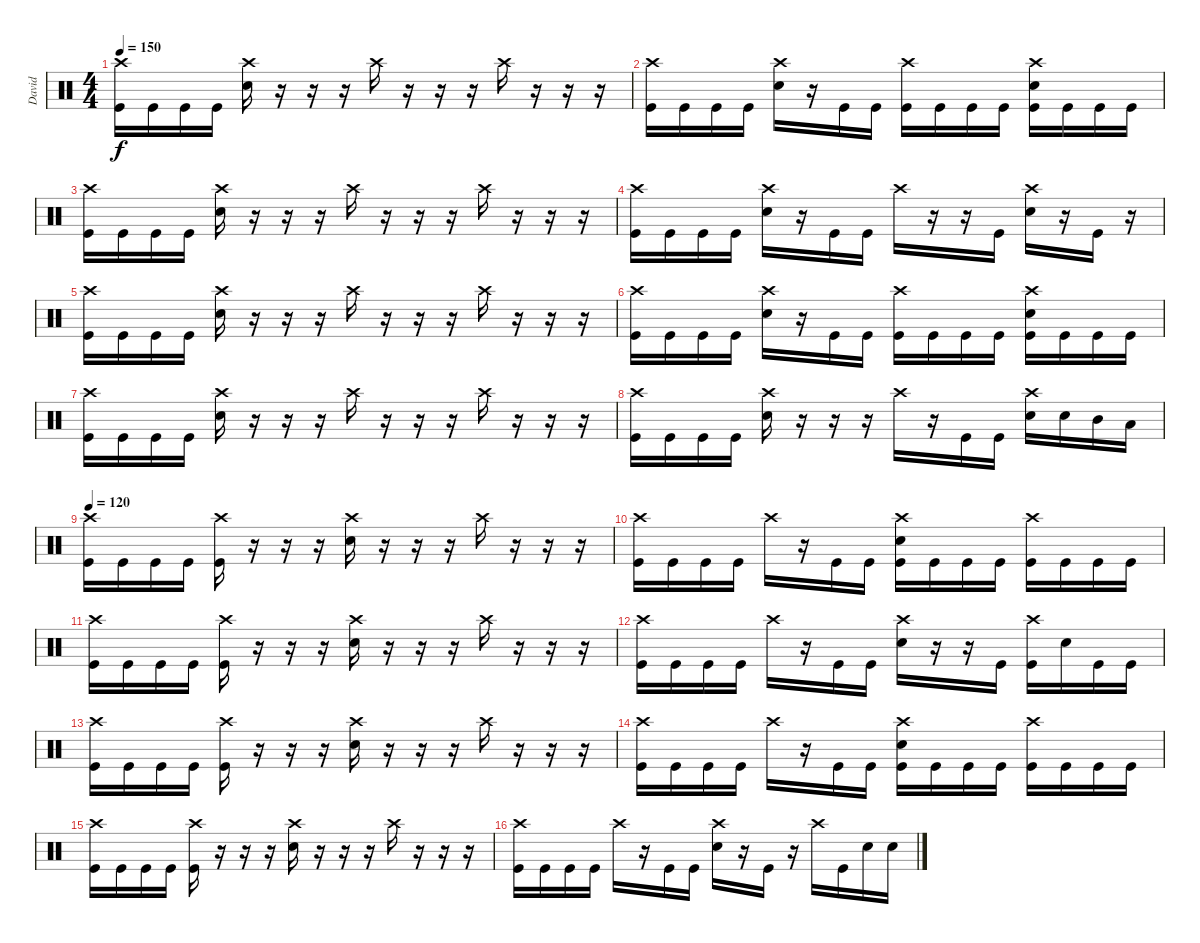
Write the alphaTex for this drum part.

\track ("David" "David") {instrument percussion}
\staff {score}
\articulation defaults
\ts (4 4)
\tempo 150
\clef neutral
\ks c
("Crash high (hit)" "Kick (hit)").16{dy f} "Kick (hit)".16 "Kick (hit)".16 "Kick (hit)".16 ("Crash high (hit)" "Electric Snare (hit)").16 r.16 r.16 r.16 "Crash high (hit)".16 r.16 r.16 r.16 "Crash high (hit)".16 r.16 r.16 r.16 |
("Crash high (hit)" "Kick (hit)").16 "Kick (hit)".16 "Kick (hit)".16 "Kick (hit)".16 ("Crash high (hit)" "Electric Snare (hit)").16 r.16 "Kick (hit)".16 "Kick (hit)".16 ("Crash high (hit)" "Kick (hit)").16 "Kick (hit)".16 "Kick (hit)".16 "Kick (hit)".16 ("Crash high (hit)" "Electric Snare (hit)" "Kick (hit)").16 "Kick (hit)".16 "Kick (hit)".16 "Kick (hit)".16 |
("Crash high (hit)" "Kick (hit)").16 "Kick (hit)".16 "Kick (hit)".16 "Kick (hit)".16 ("Crash high (hit)" "Electric Snare (hit)").16 r.16 r.16 r.16 "Crash high (hit)".16 r.16 r.16 r.16 "Crash high (hit)".16 r.16 r.16 r.16 |
("Crash high (hit)" "Kick (hit)").16 "Kick (hit)".16 "Kick (hit)".16 "Kick (hit)".16 ("Crash high (hit)" "Electric Snare (hit)").16 r.16 "Kick (hit)".16 "Kick (hit)".16 "Crash high (hit)".16 r.16 r.16 "Kick (hit)".16 ("Crash high (hit)" "Electric Snare (hit)").16 r.16 "Kick (hit)".16 r.16 |
("Crash high (hit)" "Kick (hit)").16 "Kick (hit)".16 "Kick (hit)".16 "Kick (hit)".16 ("Crash high (hit)" "Electric Snare (hit)").16 r.16 r.16 r.16 "Crash high (hit)".16 r.16 r.16 r.16 "Crash high (hit)".16 r.16 r.16 r.16 |
("Crash high (hit)" "Kick (hit)").16 "Kick (hit)".16 "Kick (hit)".16 "Kick (hit)".16 ("Crash high (hit)" "Electric Snare (hit)").16 r.16 "Kick (hit)".16 "Kick (hit)".16 ("Crash high (hit)" "Kick (hit)").16 "Kick (hit)".16 "Kick (hit)".16 "Kick (hit)".16 ("Crash high (hit)" "Electric Snare (hit)" "Kick (hit)").16 "Kick (hit)".16 "Kick (hit)".16 "Kick (hit)".16 |
("Crash high (hit)" "Kick (hit)").16 "Kick (hit)".16 "Kick (hit)".16 "Kick (hit)".16 ("Crash high (hit)" "Electric Snare (hit)").16 r.16 r.16 r.16 "Crash high (hit)".16 r.16 r.16 r.16 "Crash high (hit)".16 r.16 r.16 r.16 |
("Crash high (hit)" "Kick (hit)").16 "Kick (hit)".16 "Kick (hit)".16 "Kick (hit)".16 ("Crash high (hit)" "Electric Snare (hit)").16 r.16 r.16 r.16 "Crash high (hit)".16 r.16 "Kick (hit)".16 "Kick (hit)".16 ("Crash high (hit)" "Electric Snare (hit)").16 "Electric Snare (hit)".16 "Mid Tom (hit)".16 "Low Tom (hit)".16 |
\tempo 120
("Crash high (hit)" "Kick (hit)").16 "Kick (hit)".16 "Kick (hit)".16 "Kick (hit)".16 ("Crash high (hit)" "Kick (hit)").16 r.16 r.16 r.16 ("Crash high (hit)" "Electric Snare (hit)").16 r.16 r.16 r.16 "Crash high (hit)".16 r.16 r.16 r.16 |
("Crash high (hit)" "Kick (hit)").16 "Kick (hit)".16 "Kick (hit)".16 "Kick (hit)".16 "Crash high (hit)".16 r.16 "Kick (hit)".16 "Kick (hit)".16 ("Crash high (hit)" "Electric Snare (hit)" "Kick (hit)").16 "Kick (hit)".16 "Kick (hit)".16 "Kick (hit)".16 ("Crash high (hit)" "Kick (hit)").16 "Kick (hit)".16 "Kick (hit)".16 "Kick (hit)".16 |
("Crash high (hit)" "Kick (hit)").16 "Kick (hit)".16 "Kick (hit)".16 "Kick (hit)".16 ("Crash high (hit)" "Kick (hit)").16 r.16 r.16 r.16 ("Crash high (hit)" "Electric Snare (hit)").16 r.16 r.16 r.16 "Crash high (hit)".16 r.16 r.16 r.16 |
("Crash high (hit)" "Kick (hit)").16 "Kick (hit)".16 "Kick (hit)".16 "Kick (hit)".16 "Crash high (hit)".16 r.16 "Kick (hit)".16 "Kick (hit)".16 ("Crash high (hit)" "Electric Snare (hit)").16 r.16 r.16 "Kick (hit)".16 ("Crash high (hit)" "Kick (hit)").16 "Electric Snare (hit)".16 "Kick (hit)".16 "Kick (hit)".16 |
("Crash high (hit)" "Kick (hit)").16 "Kick (hit)".16 "Kick (hit)".16 "Kick (hit)".16 ("Crash high (hit)" "Kick (hit)").16 r.16 r.16 r.16 ("Crash high (hit)" "Electric Snare (hit)").16 r.16 r.16 r.16 "Crash high (hit)".16 r.16 r.16 r.16 |
("Crash high (hit)" "Kick (hit)").16 "Kick (hit)".16 "Kick (hit)".16 "Kick (hit)".16 "Crash high (hit)".16 r.16 "Kick (hit)".16 "Kick (hit)".16 ("Crash high (hit)" "Electric Snare (hit)" "Kick (hit)").16 "Kick (hit)".16 "Kick (hit)".16 "Kick (hit)".16 ("Crash high (hit)" "Kick (hit)").16 "Kick (hit)".16 "Kick (hit)".16 "Kick (hit)".16 |
("Crash high (hit)" "Kick (hit)").16 "Kick (hit)".16 "Kick (hit)".16 "Kick (hit)".16 ("Crash high (hit)" "Kick (hit)").16 r.16 r.16 r.16 ("Crash high (hit)" "Electric Snare (hit)").16 r.16 r.16 r.16 "Crash high (hit)".16 r.16 r.16 r.16 |
("Crash high (hit)" "Kick (hit)").16 "Kick (hit)".16 "Kick (hit)".16 "Kick (hit)".16 "Crash high (hit)".16 r.16 "Kick (hit)".16 "Kick (hit)".16 ("Crash high (hit)" "Electric Snare (hit)").16 r.16 "Kick (hit)".16 r.16 "Crash high (hit)".16 "Kick (hit)".16 "Electric Snare (hit)".16 "Electric Snare (hit)".16
